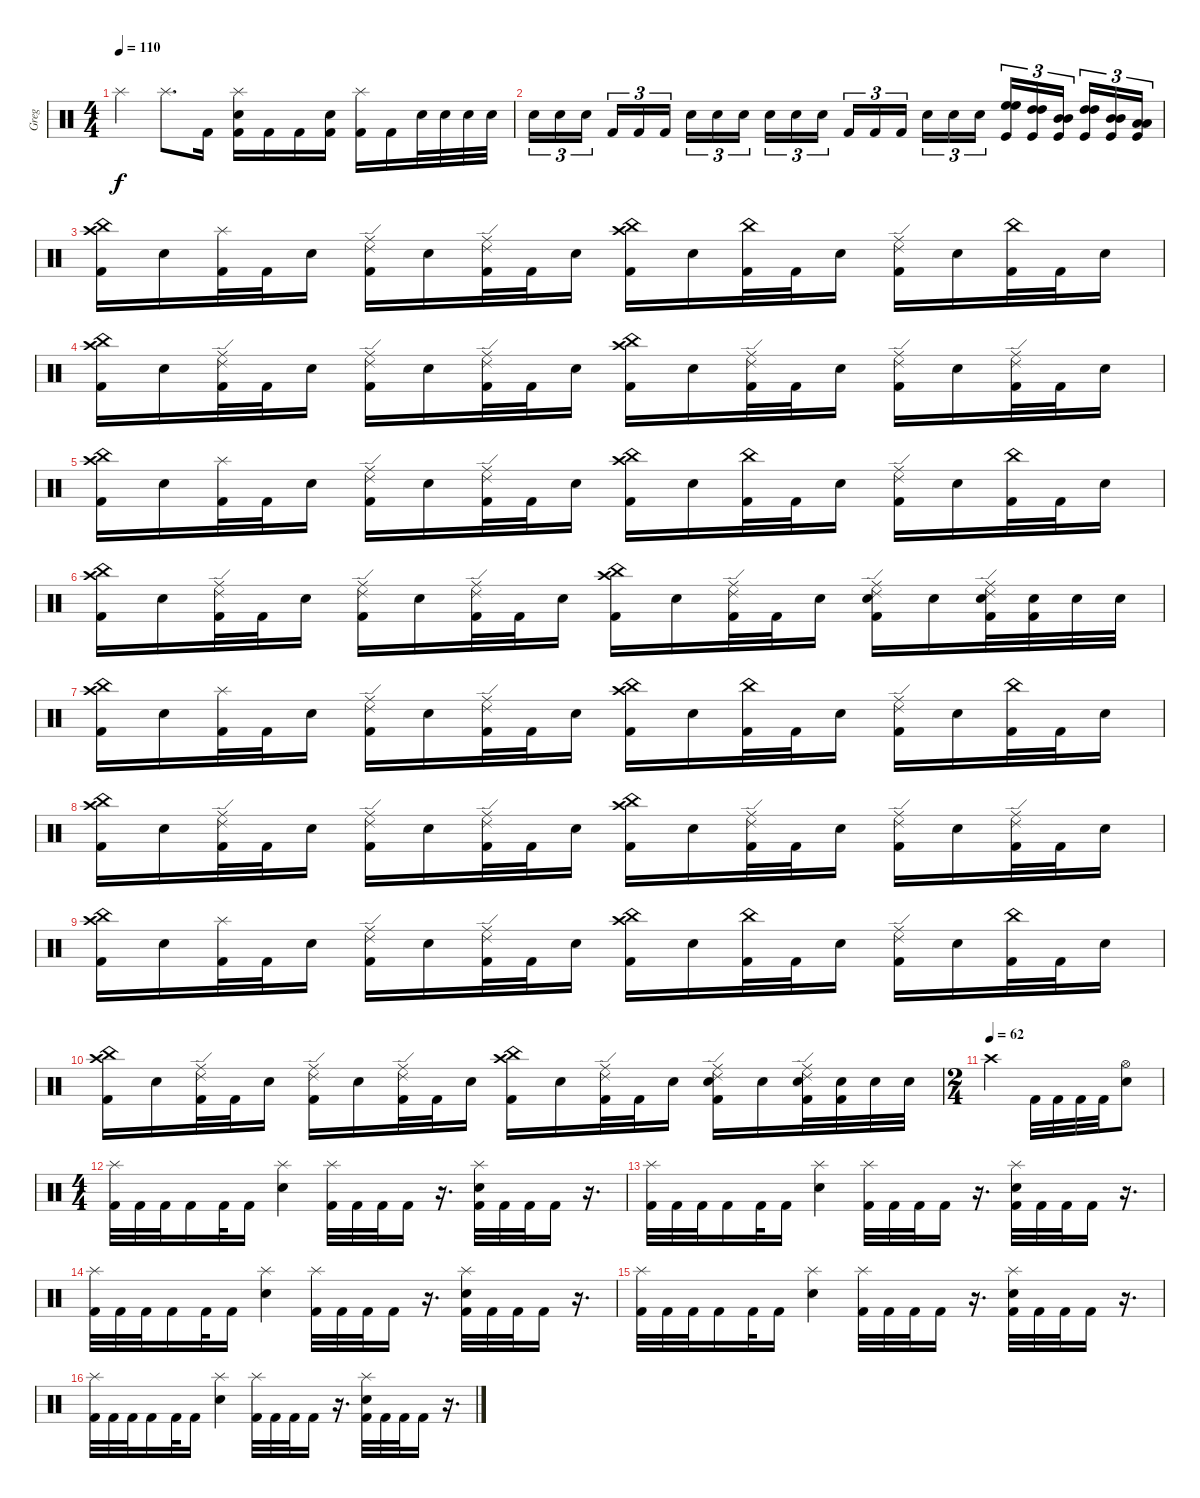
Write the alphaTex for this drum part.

\track ("Greg" "Greg") {instrument percussion}
\staff {score}
\articulation defaults
\ts (4 4)
\tempo 110
\clef neutral
\ks c "Splash (hit)".4{dy f} "Splash (hit)".8{d} "Kick (hit) 2".16
("Splash (hit)" "Snare (hit) 2" "Kick (hit) 2").16 "Kick (hit) 2".16 "Kick (hit) 2".16 ("Snare (hit) 2" "Kick (hit) 2").16 ("Splash (hit)" "Kick (hit) 2").16 "Kick (hit) 2".16 "Snare (hit) 2".32 "Snare (hit) 2".32 "Snare (hit) 2".32 "Snare (hit) 2".32 |
"Snare (hit) 2".16{tu (3 2)} "Snare (hit) 2".16{tu (3 2)} "Snare (hit) 2".16{tu (3 2) beam splitsecondary} "Kick (hit) 2".16{tu (3 2)} "Kick (hit) 2".16{tu (3 2)} "Kick (hit) 2".16{tu (3 2)} "Snare (hit) 2".16{tu (3 2)} "Snare (hit) 2".16{tu (3 2)} "Snare (hit) 2".16{tu (3 2) beam splitsecondary} "Snare (hit) 2".16{tu (3 2)} "Snare (hit) 2".16{tu (3 2)} "Snare (hit) 2".16{tu (3 2)} "Kick (hit) 2".16{tu (3 2)} "Kick (hit) 2".16{tu (3 2)} "Kick (hit) 2".16{tu (3 2) beam splitsecondary} "Snare (hit) 2".16{tu (3 2)} "Snare (hit) 2".16{tu (3 2)} "Snare (hit) 2".16{tu (3 2)} ("High Floor Tom (hit)" "High Floor Tom (hit)" "Kick (hit)").16{tu (3 2)} ("High Tom (hit)" "High Tom (hit)" "Kick (hit)").16{tu (3 2)} ("Mid Tom (hit)" "Mid Tom (hit)" "Kick (hit)").16{tu (3 2) beam splitsecondary} ("High Tom (hit)" "High Tom (hit)" "Kick (hit)").16{tu (3 2)} ("Mid Tom (hit)" "Mid Tom (hit)" "Kick (hit)").16{tu (3 2)} ("Low Tom (hit)" "Low Tom (hit)" "Kick (hit)").16{tu (3 2)} |
("Crash high (hit)" "China (hit)" "Kick (hit) 2").16 "Snare (hit) 2".16 ("Splash (hit)" "Kick (hit) 2").32 "Kick (hit) 2".32 "Snare (hit) 2".16 ("Ride (edge) 2" "Ride (middle)" "Kick (hit) 2").16 "Snare (hit) 2".16 ("Ride (edge) 2" "Ride (middle)" "Kick (hit) 2").32 "Kick (hit) 2".32 "Snare (hit) 2".16 ("Crash high (hit)" "China (hit)" "Kick (hit) 2").16 "Snare (hit) 2".16 ("China (hit)" "Kick (hit) 2").32 "Kick (hit) 2".32 "Snare (hit) 2".16 ("Ride (edge) 2" "Ride (middle)" "Kick (hit) 2").16 "Snare (hit) 2".16 ("China (hit)" "Kick (hit) 2").32 "Kick (hit) 2".32 "Snare (hit) 2".16 |
("Crash high (hit)" "China (hit)" "Kick (hit) 2").16 "Snare (hit) 2".16 ("Ride (edge) 2" "Ride (middle)" "Kick (hit) 2").32 "Kick (hit) 2".32 "Snare (hit) 2".16 ("Ride (edge) 2" "Ride (middle)" "Kick (hit) 2").16 "Snare (hit) 2".16 ("Ride (edge) 2" "Ride (middle)" "Kick (hit) 2").32 "Kick (hit) 2".32 "Snare (hit) 2".16 ("Crash high (hit)" "China (hit)" "Kick (hit) 2").16 "Snare (hit) 2".16 ("Ride (edge) 2" "Ride (middle)" "Kick (hit) 2").32 "Kick (hit) 2".32 "Snare (hit) 2".16 ("Ride (edge) 2" "Ride (middle)" "Kick (hit) 2").16 "Snare (hit) 2".16 ("Ride (edge) 2" "Ride (middle)" "Kick (hit) 2").32 "Kick (hit) 2".32 "Snare (hit) 2".16 |
("Crash high (hit)" "China (hit)" "Kick (hit) 2").16 "Snare (hit) 2".16 ("Splash (hit)" "Kick (hit) 2").32 "Kick (hit) 2".32 "Snare (hit) 2".16 ("Ride (edge) 2" "Ride (middle)" "Kick (hit) 2").16 "Snare (hit) 2".16 ("Ride (edge) 2" "Ride (middle)" "Kick (hit) 2").32 "Kick (hit) 2".32 "Snare (hit) 2".16 ("Crash high (hit)" "China (hit)" "Kick (hit) 2").16 "Snare (hit) 2".16 ("China (hit)" "Kick (hit) 2").32 "Kick (hit) 2".32 "Snare (hit) 2".16 ("Ride (edge) 2" "Ride (middle)" "Kick (hit) 2").16 "Snare (hit) 2".16 ("China (hit)" "Kick (hit) 2").32 "Kick (hit) 2".32 "Snare (hit) 2".16 |
("Crash high (hit)" "China (hit)" "Kick (hit) 2").16 "Snare (hit) 2".16 ("Ride (edge) 2" "Ride (middle)" "Kick (hit) 2").32 "Kick (hit) 2".32 "Snare (hit) 2".16 ("Ride (edge) 2" "Ride (middle)" "Kick (hit) 2").16 "Snare (hit) 2".16 ("Ride (edge) 2" "Ride (middle)" "Kick (hit) 2").32 "Kick (hit) 2".32 "Snare (hit) 2".16 ("Crash high (hit)" "China (hit)" "Kick (hit) 2").16 "Snare (hit) 2".16 ("Ride (edge) 2" "Ride (middle)" "Kick (hit) 2").32 "Kick (hit) 2".32 "Snare (hit) 2".16 ("Ride (edge) 2" "Ride (middle)" "Snare (hit) 2" "Kick (hit) 2").16 "Snare (hit) 2".16 ("Ride (edge) 2" "Ride (middle)" "Snare (hit) 2" "Kick (hit) 2").32 ("Snare (hit) 2" "Kick (hit) 2").32 "Snare (hit) 2".32 "Snare (hit) 2".32 |
("Crash high (hit)" "China (hit)" "Kick (hit) 2").16 "Snare (hit) 2".16 ("Splash (hit)" "Kick (hit) 2").32 "Kick (hit) 2".32 "Snare (hit) 2".16 ("Ride (edge) 2" "Ride (middle)" "Kick (hit) 2").16 "Snare (hit) 2".16 ("Ride (edge) 2" "Ride (middle)" "Kick (hit) 2").32 "Kick (hit) 2".32 "Snare (hit) 2".16 ("Crash high (hit)" "China (hit)" "Kick (hit) 2").16 "Snare (hit) 2".16 ("China (hit)" "Kick (hit) 2").32 "Kick (hit) 2".32 "Snare (hit) 2".16 ("Ride (edge) 2" "Ride (middle)" "Kick (hit) 2").16 "Snare (hit) 2".16 ("China (hit)" "Kick (hit) 2").32 "Kick (hit) 2".32 "Snare (hit) 2".16 |
("Crash high (hit)" "China (hit)" "Kick (hit) 2").16 "Snare (hit) 2".16 ("Ride (edge) 2" "Ride (middle)" "Kick (hit) 2").32 "Kick (hit) 2".32 "Snare (hit) 2".16 ("Ride (edge) 2" "Ride (middle)" "Kick (hit) 2").16 "Snare (hit) 2".16 ("Ride (edge) 2" "Ride (middle)" "Kick (hit) 2").32 "Kick (hit) 2".32 "Snare (hit) 2".16 ("Crash high (hit)" "China (hit)" "Kick (hit) 2").16 "Snare (hit) 2".16 ("Ride (edge) 2" "Ride (middle)" "Kick (hit) 2").32 "Kick (hit) 2".32 "Snare (hit) 2".16 ("Ride (edge) 2" "Ride (middle)" "Kick (hit) 2").16 "Snare (hit) 2".16 ("Ride (edge) 2" "Ride (middle)" "Kick (hit) 2").32 "Kick (hit) 2".32 "Snare (hit) 2".16 |
("Crash high (hit)" "China (hit)" "Kick (hit) 2").16 "Snare (hit) 2".16 ("Splash (hit)" "Kick (hit) 2").32 "Kick (hit) 2".32 "Snare (hit) 2".16 ("Ride (edge) 2" "Ride (middle)" "Kick (hit) 2").16 "Snare (hit) 2".16 ("Ride (edge) 2" "Ride (middle)" "Kick (hit) 2").32 "Kick (hit) 2".32 "Snare (hit) 2".16 ("Crash high (hit)" "China (hit)" "Kick (hit) 2").16 "Snare (hit) 2".16 ("China (hit)" "Kick (hit) 2").32 "Kick (hit) 2".32 "Snare (hit) 2".16 ("Ride (edge) 2" "Ride (middle)" "Kick (hit) 2").16 "Snare (hit) 2".16 ("China (hit)" "Kick (hit) 2").32 "Kick (hit) 2".32 "Snare (hit) 2".16 |
("Crash high (hit)" "China (hit)" "Kick (hit) 2").16 "Snare (hit) 2".16 ("Ride (edge) 2" "Ride (middle)" "Kick (hit) 2").32 "Kick (hit) 2".32 "Snare (hit) 2".16 ("Ride (edge) 2" "Ride (middle)" "Kick (hit) 2").16 "Snare (hit) 2".16 ("Ride (edge) 2" "Ride (middle)" "Kick (hit) 2").32 "Kick (hit) 2".32 "Snare (hit) 2".16 ("Crash high (hit)" "China (hit)" "Kick (hit) 2").16 "Snare (hit) 2".16 ("Ride (edge) 2" "Ride (middle)" "Kick (hit) 2").32 "Kick (hit) 2".32 "Snare (hit) 2".16 ("Ride (edge) 2" "Ride (middle)" "Snare (hit) 2" "Kick (hit) 2").16 "Snare (hit) 2".16 ("Ride (edge) 2" "Ride (middle)" "Snare (hit) 2" "Kick (hit) 2").32 ("Snare (hit) 2" "Kick (hit) 2").32 "Snare (hit) 2".32 "Snare (hit) 2".32 |
\ts (2 4)
\tempo (62)
"Crash high (hit)".4 "Kick (hit) 2".32 "Kick (hit) 2".32 "Kick (hit) 2".32 "Kick (hit) 2".32 ("Hi-Hat (open)" "Snare (hit) 2").8 |
\ts (4 4)
("Splash (hit)" "Kick (hit) 2").32 "Kick (hit) 2".32 "Kick (hit) 2".32 "Kick (hit) 2".16 "Kick (hit) 2".32 "Kick (hit) 2".16 ("Splash (hit)" "Snare (hit) 2").4 ("Splash (hit)" "Kick (hit) 2").32 "Kick (hit) 2".32 "Kick (hit) 2".32 "Kick (hit) 2".16 r.16{d} ("Splash (hit)" "Snare (hit) 2" "Kick (hit) 2").32 "Kick (hit) 2".32 "Kick (hit) 2".32 "Kick (hit) 2".16 r.16{d} |
("Splash (hit)" "Kick (hit) 2").32 "Kick (hit) 2".32 "Kick (hit) 2".32 "Kick (hit) 2".16 "Kick (hit) 2".32 "Kick (hit) 2".16 ("Splash (hit)" "Snare (hit) 2").4 ("Splash (hit)" "Kick (hit) 2").32 "Kick (hit) 2".32 "Kick (hit) 2".32 "Kick (hit) 2".16 r.16{d} ("Splash (hit)" "Snare (hit) 2" "Kick (hit) 2").32 "Kick (hit) 2".32 "Kick (hit) 2".32 "Kick (hit) 2".16 r.16{d} |
("Splash (hit)" "Kick (hit) 2").32 "Kick (hit) 2".32 "Kick (hit) 2".32 "Kick (hit) 2".16 "Kick (hit) 2".32 "Kick (hit) 2".16 ("Splash (hit)" "Snare (hit) 2").4 ("Splash (hit)" "Kick (hit) 2").32 "Kick (hit) 2".32 "Kick (hit) 2".32 "Kick (hit) 2".16 r.16{d} ("Splash (hit)" "Snare (hit) 2" "Kick (hit) 2").32 "Kick (hit) 2".32 "Kick (hit) 2".32 "Kick (hit) 2".16 r.16{d} |
("Splash (hit)" "Kick (hit) 2").32 "Kick (hit) 2".32 "Kick (hit) 2".32 "Kick (hit) 2".16 "Kick (hit) 2".32 "Kick (hit) 2".16 ("Splash (hit)" "Snare (hit) 2").4 ("Splash (hit)" "Kick (hit) 2").32 "Kick (hit) 2".32 "Kick (hit) 2".32 "Kick (hit) 2".16 r.16{d} ("Splash (hit)" "Snare (hit) 2" "Kick (hit) 2").32 "Kick (hit) 2".32 "Kick (hit) 2".32 "Kick (hit) 2".16 r.16{d} |
("Splash (hit)" "Kick (hit) 2").32 "Kick (hit) 2".32 "Kick (hit) 2".32 "Kick (hit) 2".16 "Kick (hit) 2".32 "Kick (hit) 2".16 ("Splash (hit)" "Snare (hit) 2").4 ("Splash (hit)" "Kick (hit) 2").32 "Kick (hit) 2".32 "Kick (hit) 2".32 "Kick (hit) 2".16 r.16{d} ("Splash (hit)" "Snare (hit) 2" "Kick (hit) 2").32 "Kick (hit) 2".32 "Kick (hit) 2".32 "Kick (hit) 2".16 r.16{d}
